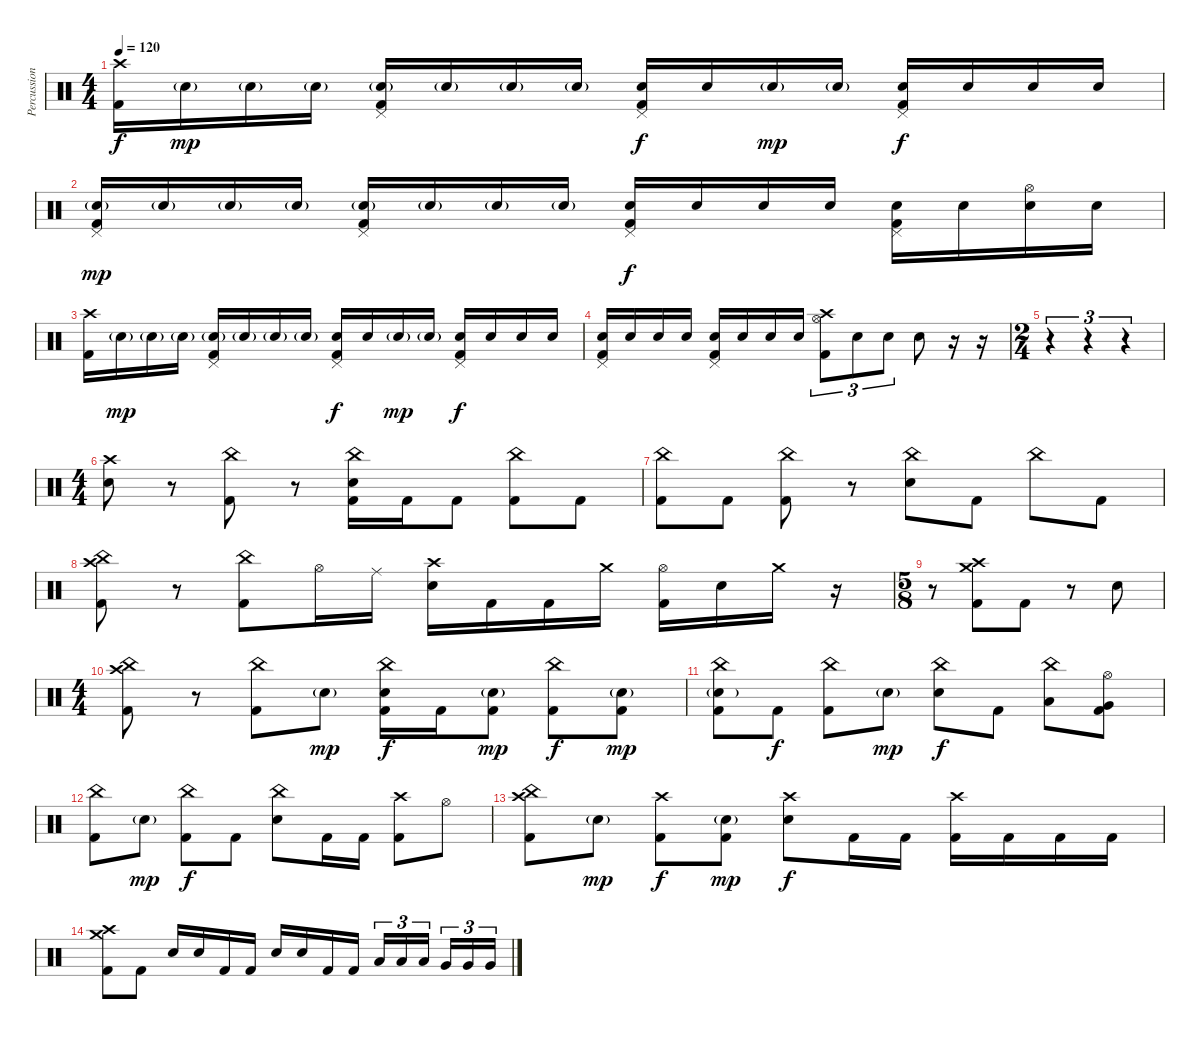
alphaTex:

\track ("Percussion" "Percussion") {instrument percussion}
\staff {score}
\articulation defaults
\ts (4 4)
\tempo 120
\clef neutral
\ks c
("Crash high (hit)" "Kick (hit) 2").16{dy f} "Electric Snare (hit)"{g}.16{dy mp} "Electric Snare (hit)"{g}.16 "Electric Snare (hit)"{g}.16 ("Pedal Hi-Hat (hit)" "Electric Snare (hit)"{g} "Kick (hit) 2").16 "Electric Snare (hit)"{g}.16 "Electric Snare (hit)"{g}.16 "Electric Snare (hit)"{g}.16 ("Pedal Hi-Hat (hit)" "Electric Snare (hit)" "Kick (hit) 2").16{dy f} "Electric Snare (hit)".16 "Electric Snare (hit)"{g}.16{dy mp} "Electric Snare (hit)"{g}.16 ("Pedal Hi-Hat (hit)" "Electric Snare (hit)" "Kick (hit) 2").16{dy f} "Electric Snare (hit)".16 "Electric Snare (hit)".16 "Electric Snare (hit)".16 |
("Pedal Hi-Hat (hit)" "Electric Snare (hit)"{g} "Kick (hit) 2").16{dy mp} "Electric Snare (hit)"{g}.16 "Electric Snare (hit)"{g}.16 "Electric Snare (hit)"{g}.16 ("Pedal Hi-Hat (hit)" "Electric Snare (hit)"{g} "Kick (hit) 2").16 "Electric Snare (hit)"{g}.16 "Electric Snare (hit)"{g}.16 "Electric Snare (hit)"{g}.16 ("Pedal Hi-Hat (hit)" "Electric Snare (hit)" "Kick (hit) 2").16{dy f} "Electric Snare (hit)".16 "Electric Snare (hit)".16 "Electric Snare (hit)".16 ("Pedal Hi-Hat (hit)" "Electric Snare (hit)" "Kick (hit) 2").16 "Electric Snare (hit)".16 ("Hi-Hat (open)" "Electric Snare (hit)").16 "Electric Snare (hit)".16 |
("Crash high (hit)" "Kick (hit) 2").16 "Electric Snare (hit)"{g}.16{dy mp} "Electric Snare (hit)"{g}.16 "Electric Snare (hit)"{g}.16 ("Pedal Hi-Hat (hit)" "Electric Snare (hit)"{g} "Kick (hit) 2").16 "Electric Snare (hit)"{g}.16 "Electric Snare (hit)"{g}.16 "Electric Snare (hit)"{g}.16 ("Pedal Hi-Hat (hit)" "Electric Snare (hit)" "Kick (hit) 2").16{dy f} "Electric Snare (hit)".16 "Electric Snare (hit)"{g}.16{dy mp} "Electric Snare (hit)"{g}.16 ("Pedal Hi-Hat (hit)" "Electric Snare (hit)" "Kick (hit) 2").16{dy f} "Electric Snare (hit)".16 "Electric Snare (hit)".16 "Electric Snare (hit)".16 |
("Pedal Hi-Hat (hit)" "Electric Snare (hit)" "Kick (hit) 2").16 "Electric Snare (hit)".16 "Electric Snare (hit)".16 "Electric Snare (hit)".16 ("Pedal Hi-Hat (hit)" "Electric Snare (hit)" "Kick (hit) 2").16 "Electric Snare (hit)".16 "Electric Snare (hit)".16 "Electric Snare (hit)".16 ("Crash high (hit)" "Hi-Hat (open)" "Kick (hit) 2").8{tu (3 2)} "Electric Snare (hit)".8{tu (3 2)} "Electric Snare (hit)".8{tu (3 2)} "Electric Snare (hit)".8 r.16 r.16 |
\ts (2 4)
r.4{tu (3 2)} r.4{tu (3 2)} r.4{tu (3 2)} |
\ts (4 4)
("Crash high (hit)" "Electric Snare (hit)").8 r.8 ("China (hit)" "Kick (hit) 2").8 r.8 ("China (hit)" "Electric Snare (hit)" "Kick (hit) 2").16 "Kick (hit) 2".16 "Kick (hit) 2".8 ("China (hit)" "Kick (hit) 2").8 "Kick (hit) 2".8 |
("China (hit)" "Kick (hit) 2").8 "Kick (hit) 2".8 ("China (hit)" "Kick (hit) 2").8 r.8 ("China (hit)" "Electric Snare (hit)").8 "Kick (hit) 2".8 "China (hit)".8 "Kick (hit) 2".8 |
("China (hit)" "Crash high (hit)" "Kick (hit) 2").8 r.8 ("China (hit)" "Kick (hit) 2").8 "Hi-Hat (open)".16 "Ride (middle)".16 ("Crash high (hit)" "Electric Snare (hit)").16 "Kick (hit) 2".16 "Kick (hit) 2".16 "Crash medium (hit)".16 ("Hi-Hat (open)" "Kick (hit) 2").16 "Electric Snare (hit)".16 "Crash medium (hit)".16 r.16 |
\ts (5 8)
r.8 ("Crash medium (hit)" "Crash high (hit)" "Kick (hit) 2").8 "Kick (hit) 2".8 r.8 "Electric Snare (hit)".8 |
\ts (4 4)
("China (hit)" "Crash high (hit)" "Kick (hit) 2").8 r.8 ("China (hit)" "Kick (hit) 2").8 "Electric Snare (hit)"{g}.8{dy mp} ("China (hit)" "Electric Snare (hit)" "Kick (hit) 2").16{dy f} "Kick (hit) 2".16 ("Electric Snare (hit)"{g} "Kick (hit) 2").8{dy mp} ("China (hit)" "Kick (hit) 2").8{dy f} ("Electric Snare (hit)"{g} "Kick (hit) 2").8{dy mp} |
("China (hit)" "Electric Snare (hit)"{g} "Kick (hit) 2").8 "Kick (hit) 2".8{dy f} ("China (hit)" "Kick (hit) 2").8 "Electric Snare (hit)"{g}.8{dy mp} ("China (hit)" "Electric Snare (hit)").8{dy f} "Kick (hit) 2".8 ("China (hit)" "Low Tom (hit)").8 ("Hi-Hat (open)" "Very Low Tom (hit)" "Kick (hit) 2").8 |
("China (hit)" "Kick (hit) 2").8 "Electric Snare (hit)"{g}.8{dy mp} ("China (hit)" "Kick (hit) 2").8{dy f} "Kick (hit) 2".8 ("China (hit)" "Electric Snare (hit)").8 "Kick (hit) 2".16 "Kick (hit) 2".16 ("Crash high (hit)" "Kick (hit) 2").8 "Hi-Hat (open)".8 |
("Crash high (hit)" "China (hit)" "Kick (hit) 2").8 "Electric Snare (hit)"{g}.8{dy mp} ("Crash high (hit)" "Kick (hit) 2").8{dy f} ("Electric Snare (hit)"{g} "Kick (hit) 2").8{dy mp} ("Crash high (hit)" "Electric Snare (hit)").8{dy f} "Kick (hit) 2".16 "Kick (hit) 2".16 ("Crash high (hit)" "Kick (hit) 2").16 "Kick (hit) 2".16 "Kick (hit) 2".16 "Kick (hit) 2".16 |
("Crash medium (hit)" "Crash high (hit)" "Kick (hit) 2").8 "Kick (hit) 2".8 "Electric Snare (hit)".16 "Electric Snare (hit)".16 "Kick (hit) 2".16 "Kick (hit) 2".16 "Electric Snare (hit)".16 "Electric Snare (hit)".16 "Kick (hit) 2".16 "Kick (hit) 2".16 "Low Tom (hit)".16{tu (3 2)} "Low Tom (hit)".16{tu (3 2)} "Low Tom (hit)".16{tu (3 2) beam splitsecondary} "Very Low Tom (hit)".16{tu (3 2)} "Very Low Tom (hit)".16{tu (3 2)} "Very Low Tom (hit)".16{tu (3 2)}
